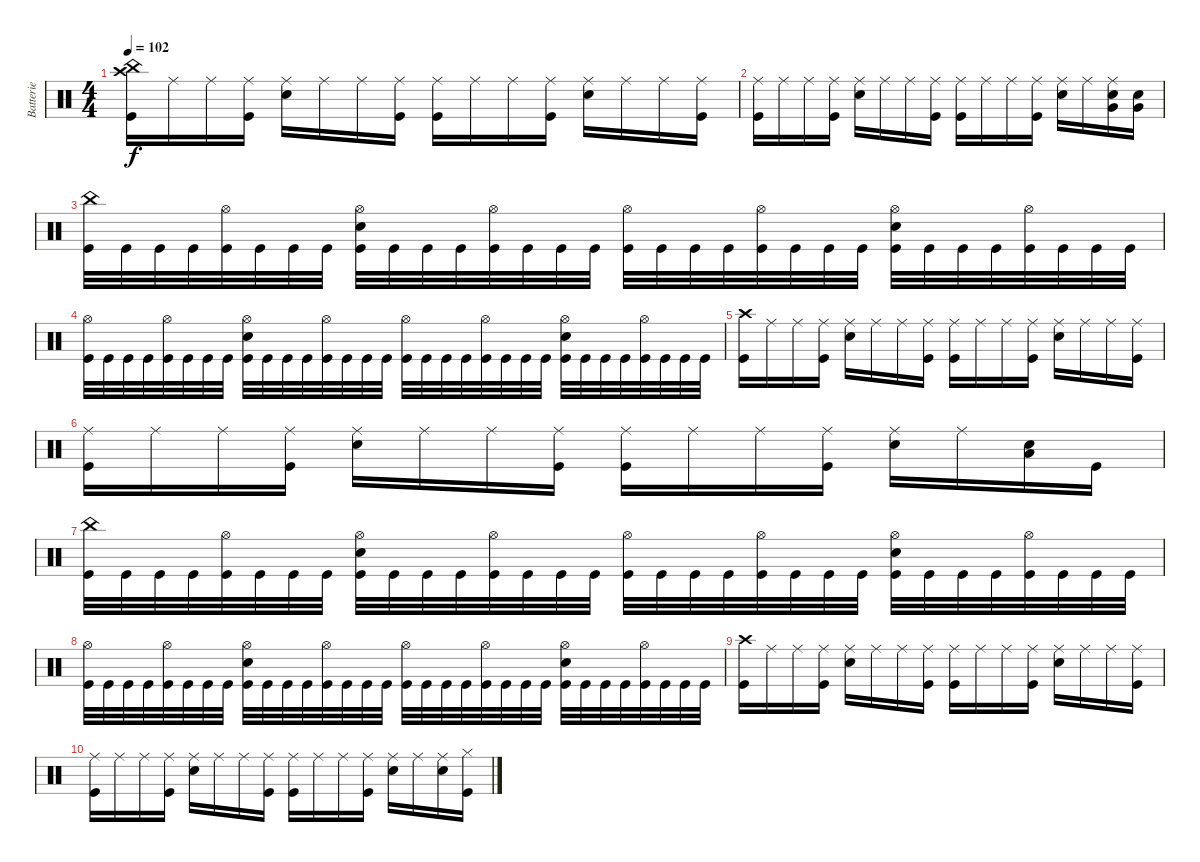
\track ("Batterie" "Batterie") {instrument percussion}
\staff {score}
\articulation defaults
\ts (4 4)
\tempo 102
\clef neutral
\ks c
("Crash high (hit)" "China (hit)" "Kick (hit)").16{dy f} "Ride (middle)".16 "Ride (middle)".16 ("Ride (middle)" "Kick (hit)").16 ("Ride (middle)" "Electric Snare (hit)").16 "Ride (middle)".16 "Ride (middle)".16 ("Ride (middle)" "Kick (hit)").16 ("Ride (middle)" "Kick (hit)").16 "Ride (middle)".16 "Ride (middle)".16 ("Ride (middle)" "Kick (hit)").16 ("Ride (middle)" "Electric Snare (hit)").16 "Ride (middle)".16 "Ride (middle)".16 ("Ride (middle)" "Kick (hit)").16 |
("Ride (middle)" "Kick (hit)").16 "Ride (middle)".16 "Ride (middle)".16 ("Ride (middle)" "Kick (hit)").16 ("Ride (middle)" "Electric Snare (hit)").16 "Ride (middle)".16 "Ride (middle)".16 ("Ride (middle)" "Kick (hit)").16 ("Ride (middle)" "Kick (hit)").16 "Ride (middle)".16 "Ride (middle)".16 ("Ride (middle)" "Kick (hit)").16 ("Ride (middle)" "Electric Snare (hit)").16 "Ride (middle)".16 ("Ride (middle)" "Electric Snare (hit)" "Very Low Tom (hit)").16 ("Electric Snare (hit)" "Very Low Tom (hit)").16 |
("China (hit)" "Kick (hit)").32 "Kick (hit)".32 "Kick (hit)".32 "Kick (hit)".32 ("Hi-Hat (open)" "Kick (hit)").32 "Kick (hit)".32 "Kick (hit)".32 "Kick (hit)".32 ("Hi-Hat (open)" "Electric Snare (hit)" "Kick (hit)").32 "Kick (hit)".32 "Kick (hit)".32 "Kick (hit)".32 ("Hi-Hat (open)" "Kick (hit)").32 "Kick (hit)".32 "Kick (hit)".32 "Kick (hit)".32 ("Hi-Hat (open)" "Kick (hit)").32 "Kick (hit)".32 "Kick (hit)".32 "Kick (hit)".32 ("Hi-Hat (open)" "Kick (hit)").32 "Kick (hit)".32 "Kick (hit)".32 "Kick (hit)".32 ("Hi-Hat (open)" "Electric Snare (hit)" "Kick (hit)").32 "Kick (hit)".32 "Kick (hit)".32 "Kick (hit)".32 ("Hi-Hat (open)" "Kick (hit)").32 "Kick (hit)".32 "Kick (hit)".32 "Kick (hit)".32 |
("Hi-Hat (open)" "Kick (hit)").32 "Kick (hit)".32 "Kick (hit)".32 "Kick (hit)".32 ("Hi-Hat (open)" "Kick (hit)").32 "Kick (hit)".32 "Kick (hit)".32 "Kick (hit)".32 ("Hi-Hat (open)" "Electric Snare (hit)" "Kick (hit)").32 "Kick (hit)".32 "Kick (hit)".32 "Kick (hit)".32 ("Hi-Hat (open)" "Kick (hit)").32 "Kick (hit)".32 "Kick (hit)".32 "Kick (hit)".32 ("Hi-Hat (open)" "Kick (hit)").32 "Kick (hit)".32 "Kick (hit)".32 "Kick (hit)".32 ("Hi-Hat (open)" "Kick (hit)").32 "Kick (hit)".32 "Kick (hit)".32 "Kick (hit)".32 ("Hi-Hat (open)" "Electric Snare (hit)" "Kick (hit)").32 "Kick (hit)".32 "Kick (hit)".32 "Kick (hit)".32 ("Hi-Hat (open)" "Kick (hit)").32 "Kick (hit)".32 "Kick (hit)".32 "Kick (hit)".32 |
("Crash high (hit)" "Kick (hit)").16 "Ride (middle)".16 "Ride (middle)".16 ("Ride (middle)" "Kick (hit)").16 ("Ride (middle)" "Electric Snare (hit)").16 "Ride (middle)".16 "Ride (middle)".16 ("Ride (middle)" "Kick (hit)").16 ("Ride (middle)" "Kick (hit)").16 "Ride (middle)".16 "Ride (middle)".16 ("Ride (middle)" "Kick (hit)").16 ("Ride (middle)" "Electric Snare (hit)").16 "Ride (middle)".16 "Ride (middle)".16 ("Ride (middle)" "Kick (hit)").16 |
("Ride (middle)" "Kick (hit)").16 "Ride (middle)".16 "Ride (middle)".16 ("Ride (middle)" "Kick (hit)").16 ("Ride (middle)" "Electric Snare (hit)").16 "Ride (middle)".16 "Ride (middle)".16 ("Ride (middle)" "Kick (hit)").16 ("Ride (middle)" "Kick (hit)").16 "Ride (middle)".16 "Ride (middle)".16 ("Ride (middle)" "Kick (hit)").16 ("Ride (middle)" "Electric Snare (hit)").16 "Ride (middle)".16 ("Electric Snare (hit)" "Low Floor Tom (hit)").16 "Kick (hit)".16 |
("China (hit)" "Kick (hit)").32 "Kick (hit)".32 "Kick (hit)".32 "Kick (hit)".32 ("Hi-Hat (open)" "Kick (hit)").32 "Kick (hit)".32 "Kick (hit)".32 "Kick (hit)".32 ("Hi-Hat (open)" "Electric Snare (hit)" "Kick (hit)").32 "Kick (hit)".32 "Kick (hit)".32 "Kick (hit)".32 ("Hi-Hat (open)" "Kick (hit)").32 "Kick (hit)".32 "Kick (hit)".32 "Kick (hit)".32 ("Hi-Hat (open)" "Kick (hit)").32 "Kick (hit)".32 "Kick (hit)".32 "Kick (hit)".32 ("Hi-Hat (open)" "Kick (hit)").32 "Kick (hit)".32 "Kick (hit)".32 "Kick (hit)".32 ("Hi-Hat (open)" "Electric Snare (hit)" "Kick (hit)").32 "Kick (hit)".32 "Kick (hit)".32 "Kick (hit)".32 ("Hi-Hat (open)" "Kick (hit)").32 "Kick (hit)".32 "Kick (hit)".32 "Kick (hit)".32 |
("Hi-Hat (open)" "Kick (hit)").32 "Kick (hit)".32 "Kick (hit)".32 "Kick (hit)".32 ("Hi-Hat (open)" "Kick (hit)").32 "Kick (hit)".32 "Kick (hit)".32 "Kick (hit)".32 ("Hi-Hat (open)" "Electric Snare (hit)" "Kick (hit)").32 "Kick (hit)".32 "Kick (hit)".32 "Kick (hit)".32 ("Hi-Hat (open)" "Kick (hit)").32 "Kick (hit)".32 "Kick (hit)".32 "Kick (hit)".32 ("Hi-Hat (open)" "Kick (hit)").32 "Kick (hit)".32 "Kick (hit)".32 "Kick (hit)".32 ("Hi-Hat (open)" "Kick (hit)").32 "Kick (hit)".32 "Kick (hit)".32 "Kick (hit)".32 ("Hi-Hat (open)" "Electric Snare (hit)" "Kick (hit)").32 "Kick (hit)".32 "Kick (hit)".32 "Kick (hit)".32 ("Hi-Hat (open)" "Kick (hit)").32 "Kick (hit)".32 "Kick (hit)".32 "Kick (hit)".32 |
("Crash high (hit)" "Kick (hit)").16 "Ride (middle)".16 "Ride (middle)".16 ("Ride (middle)" "Kick (hit)").16 ("Ride (middle)" "Electric Snare (hit)").16 "Ride (middle)".16 "Ride (middle)".16 ("Ride (middle)" "Kick (hit)").16 ("Ride (middle)" "Kick (hit)").16 "Ride (middle)".16 "Ride (middle)".16 ("Ride (middle)" "Kick (hit)").16 ("Ride (middle)" "Electric Snare (hit)").16 "Ride (middle)".16 "Ride (middle)".16 ("Ride (middle)" "Kick (hit)").16 |
("Ride (middle)" "Kick (hit)").16 "Ride (middle)".16 "Ride (middle)".16 ("Ride (middle)" "Kick (hit)").16 ("Ride (middle)" "Electric Snare (hit)").16 "Ride (middle)".16 "Ride (middle)".16 ("Ride (middle)" "Kick (hit)").16 ("Ride (middle)" "Kick (hit)").16 "Ride (middle)".16 "Ride (middle)".16 ("Ride (middle)" "Kick (hit)").16 ("Ride (middle)" "Electric Snare (hit)").16 "Ride (middle)".16 ("Ride (middle)" "Electric Snare (hit)").16 ("Hi-Hat (closed)" "Kick (hit)").16
